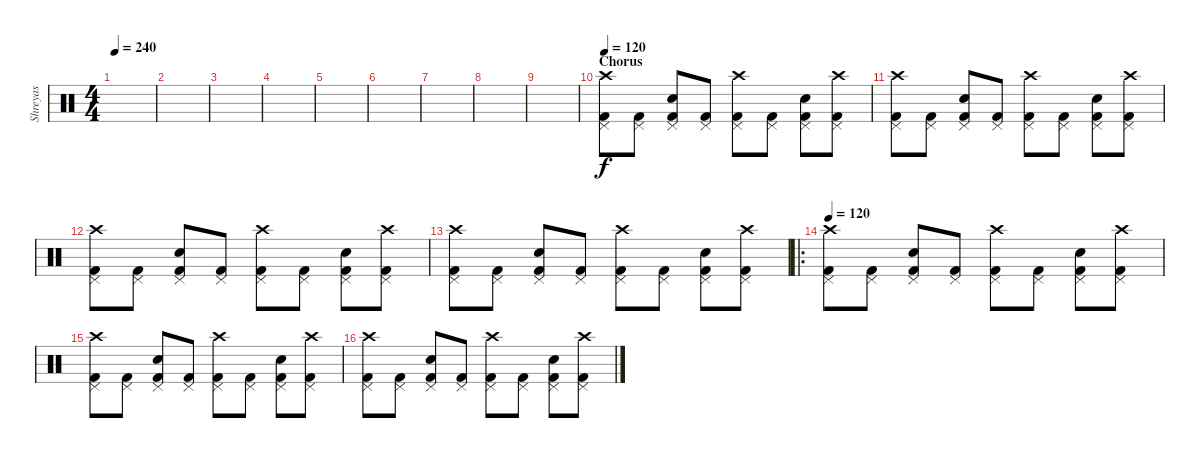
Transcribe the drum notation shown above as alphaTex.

\track ("Shreyas" "Shreyas") {instrument percussion}
\staff {score}
\articulation defaults
\ts (4 4)
\tempo 240
\clef neutral
\ks c
|
|
|
|
|
|
|
|
|
\section ("" "Chorus")
\tempo 120
("Crash high (hit)" "Kick (hit) 2" "Pedal Hi-Hat (hit)").8 ("Kick (hit) 2" "Pedal Hi-Hat (hit)").8 ("Snare (hit) 2" "Kick (hit) 2" "Pedal Hi-Hat (hit)").8 ("Kick (hit) 2" "Pedal Hi-Hat (hit)").8 ("Crash high (hit)" "Kick (hit) 2" "Pedal Hi-Hat (hit)").8 ("Kick (hit) 2" "Pedal Hi-Hat (hit)").8 ("Snare (hit) 2" "Kick (hit) 2" "Pedal Hi-Hat (hit)").8 ("Crash high (hit)" "Kick (hit) 2" "Pedal Hi-Hat (hit)").8 |
("Crash high (hit)" "Kick (hit) 2" "Pedal Hi-Hat (hit)").8 ("Kick (hit) 2" "Pedal Hi-Hat (hit)").8 ("Snare (hit) 2" "Kick (hit) 2" "Pedal Hi-Hat (hit)").8 ("Kick (hit) 2" "Pedal Hi-Hat (hit)").8 ("Crash high (hit)" "Kick (hit) 2" "Pedal Hi-Hat (hit)").8 ("Kick (hit) 2" "Pedal Hi-Hat (hit)").8 ("Snare (hit) 2" "Kick (hit) 2" "Pedal Hi-Hat (hit)").8 ("Crash high (hit)" "Kick (hit) 2" "Pedal Hi-Hat (hit)").8 |
("Crash high (hit)" "Kick (hit) 2" "Pedal Hi-Hat (hit)").8 ("Kick (hit) 2" "Pedal Hi-Hat (hit)").8 ("Snare (hit) 2" "Kick (hit) 2" "Pedal Hi-Hat (hit)").8 ("Kick (hit) 2" "Pedal Hi-Hat (hit)").8 ("Crash high (hit)" "Kick (hit) 2" "Pedal Hi-Hat (hit)").8 ("Kick (hit) 2" "Pedal Hi-Hat (hit)").8 ("Snare (hit) 2" "Kick (hit) 2" "Pedal Hi-Hat (hit)").8 ("Crash high (hit)" "Kick (hit) 2" "Pedal Hi-Hat (hit)").8 |
("Crash high (hit)" "Kick (hit) 2" "Pedal Hi-Hat (hit)").8 ("Kick (hit) 2" "Pedal Hi-Hat (hit)").8 ("Snare (hit) 2" "Kick (hit) 2" "Pedal Hi-Hat (hit)").8 ("Kick (hit) 2" "Pedal Hi-Hat (hit)").8 ("Crash high (hit)" "Kick (hit) 2" "Pedal Hi-Hat (hit)").8 ("Kick (hit) 2" "Pedal Hi-Hat (hit)").8 ("Snare (hit) 2" "Kick (hit) 2" "Pedal Hi-Hat (hit)").8 ("Crash high (hit)" "Kick (hit) 2" "Pedal Hi-Hat (hit)").8 |
\ro
\tempo 120
("Crash high (hit)" "Kick (hit) 2" "Pedal Hi-Hat (hit)").8 ("Kick (hit) 2" "Pedal Hi-Hat (hit)").8 ("Snare (hit) 2" "Kick (hit) 2" "Pedal Hi-Hat (hit)").8 ("Kick (hit) 2" "Pedal Hi-Hat (hit)").8 ("Crash high (hit)" "Kick (hit) 2" "Pedal Hi-Hat (hit)").8 ("Kick (hit) 2" "Pedal Hi-Hat (hit)").8 ("Snare (hit) 2" "Kick (hit) 2" "Pedal Hi-Hat (hit)").8 ("Crash high (hit)" "Kick (hit) 2" "Pedal Hi-Hat (hit)").8 |
("Crash high (hit)" "Kick (hit) 2" "Pedal Hi-Hat (hit)").8 ("Kick (hit) 2" "Pedal Hi-Hat (hit)").8 ("Snare (hit) 2" "Kick (hit) 2" "Pedal Hi-Hat (hit)").8 ("Kick (hit) 2" "Pedal Hi-Hat (hit)").8 ("Crash high (hit)" "Kick (hit) 2" "Pedal Hi-Hat (hit)").8 ("Kick (hit) 2" "Pedal Hi-Hat (hit)").8 ("Snare (hit) 2" "Kick (hit) 2" "Pedal Hi-Hat (hit)").8 ("Crash high (hit)" "Kick (hit) 2" "Pedal Hi-Hat (hit)").8 |
("Crash high (hit)" "Kick (hit) 2" "Pedal Hi-Hat (hit)").8 ("Kick (hit) 2" "Pedal Hi-Hat (hit)").8 ("Snare (hit) 2" "Kick (hit) 2" "Pedal Hi-Hat (hit)").8 ("Kick (hit) 2" "Pedal Hi-Hat (hit)").8 ("Crash high (hit)" "Kick (hit) 2" "Pedal Hi-Hat (hit)").8 ("Kick (hit) 2" "Pedal Hi-Hat (hit)").8 ("Snare (hit) 2" "Kick (hit) 2" "Pedal Hi-Hat (hit)").8 ("Crash high (hit)" "Kick (hit) 2" "Pedal Hi-Hat (hit)").8
